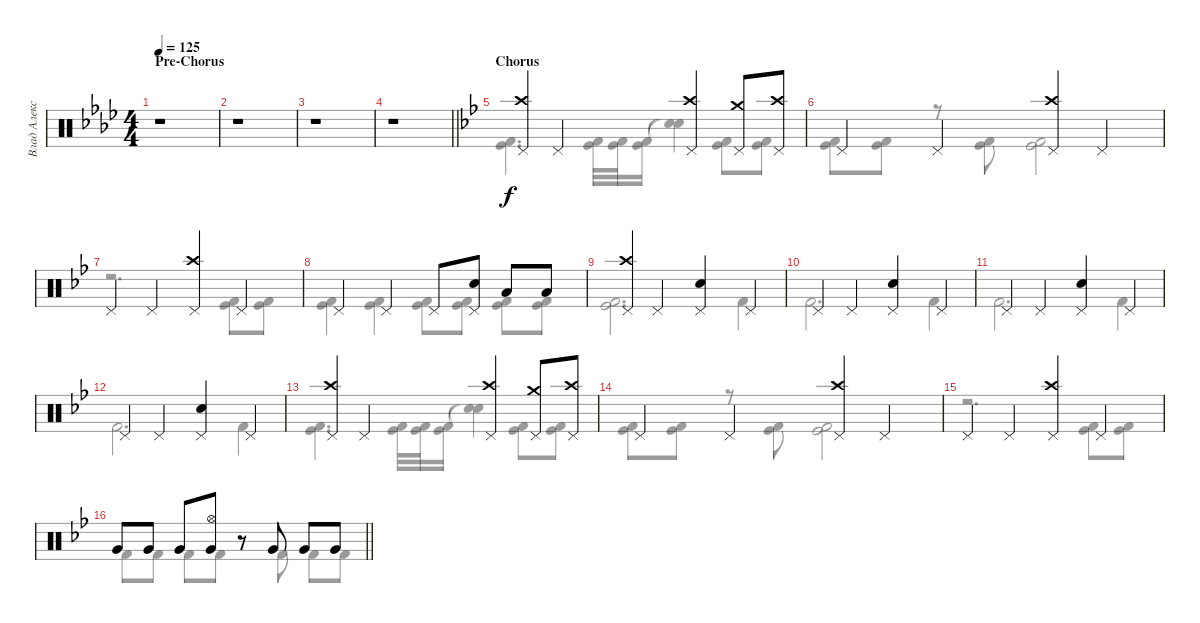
\track ("Влад Алексеенко" "Влад Алекс") {instrument percussion}
\staff {score}
\articulation defaults
\voice
\ts (4 4)
\section ("" "Pre-Chorus")
\tempo 125
\clef neutral
\ks ab
r.1{dy f} |
r.1 |
r.1 |
\barLineRight lightlight
r.1 |
\section ("" "Chorus")
\ks bb
("Pedal Hi-Hat (hit)" "Crash high (hit)").4 "Pedal Hi-Hat (hit)".4 ("Pedal Hi-Hat (hit)" "Crash high (hit)").4 ("Pedal Hi-Hat (hit)" "Crash medium (hit)").8 ("Pedal Hi-Hat (hit)" "Crash high (hit)").8 |
"Pedal Hi-Hat (hit)".4 "Pedal Hi-Hat (hit)".4 ("Pedal Hi-Hat (hit)" "Crash high (hit)").4 "Pedal Hi-Hat (hit)".4 |
"Pedal Hi-Hat (hit)".4 "Pedal Hi-Hat (hit)".4 ("Pedal Hi-Hat (hit)" "Crash high (hit)").4 "Pedal Hi-Hat (hit)".4 |
"Pedal Hi-Hat (hit)".4 "Pedal Hi-Hat (hit)".4 "Pedal Hi-Hat (hit)".8 ("Snare (hit) 2" "Pedal Hi-Hat (hit)").8 "Low Tom (hit)".8 "Low Tom (hit)".8 |
("Pedal Hi-Hat (hit)" "Crash high (hit)").4 "Pedal Hi-Hat (hit)".4 ("Snare (hit) 2" "Pedal Hi-Hat (hit)").4 "Pedal Hi-Hat (hit)".4 |
"Pedal Hi-Hat (hit)".4 "Pedal Hi-Hat (hit)".4 ("Snare (hit) 2" "Pedal Hi-Hat (hit)").4 "Pedal Hi-Hat (hit)".4 |
"Pedal Hi-Hat (hit)".4 "Pedal Hi-Hat (hit)".4 ("Snare (hit) 2" "Pedal Hi-Hat (hit)").4 "Pedal Hi-Hat (hit)".4 |
"Pedal Hi-Hat (hit)".4 "Pedal Hi-Hat (hit)".4 ("Snare (hit) 2" "Pedal Hi-Hat (hit)").4 "Pedal Hi-Hat (hit)".4 |
("Pedal Hi-Hat (hit)" "Crash high (hit)").4 "Pedal Hi-Hat (hit)".4 ("Pedal Hi-Hat (hit)" "Crash high (hit)").4 ("Pedal Hi-Hat (hit)" "Crash medium (hit)").8 ("Pedal Hi-Hat (hit)" "Crash high (hit)").8 |
"Pedal Hi-Hat (hit)".4 "Pedal Hi-Hat (hit)".4 ("Pedal Hi-Hat (hit)" "Crash high (hit)").4 "Pedal Hi-Hat (hit)".4 |
"Pedal Hi-Hat (hit)".4 "Pedal Hi-Hat (hit)".4 ("Pedal Hi-Hat (hit)" "Crash high (hit)").4 "Pedal Hi-Hat (hit)".4 |
\barLineRight lightlight "Very Low Tom (hit)".8 "Very Low Tom (hit)".8 "Very Low Tom (hit)".8
("Very Low Tom (hit)" "Hi-Hat (open)").8 r.8 "Very Low Tom (hit)".8 "Very Low Tom (hit)".8 "Very Low Tom (hit)".8
\voice
\clef neutral
\ottava regular
\simile none
\ks ab
|
|
|
\barLineRight lightlight
|
\ks bb
("Kick (hit)" "Kick (hit) 2").4{d} ("Kick (hit)" "Kick (hit) 2").32 ("Kick (hit)" "Kick (hit) 2").32 ("Kick (hit)" "Kick (hit) 2").16 ("Snare (hit)"{t} "Snare (hit)"{t}).4 ("Kick (hit)" "Kick (hit) 2").8 ("Kick (hit)" "Kick (hit) 2").8 |
("Kick (hit)" "Kick (hit) 2").8 ("Kick (hit)" "Kick (hit) 2").8 r.8 ("Kick (hit)" "Kick (hit) 2").8 ("Kick (hit)" "Kick (hit) 2").2 |
r.2{d} ("Kick (hit)" "Kick (hit) 2").8 ("Kick (hit)" "Kick (hit) 2").8 |
("Kick (hit)" "Kick (hit) 2").4 ("Kick (hit)" "Kick (hit) 2").4 ("Kick (hit)" "Kick (hit) 2").8 ("Kick (hit)" "Kick (hit) 2").8 ("Kick (hit)" "Kick (hit) 2").8 ("Kick (hit)" "Kick (hit) 2").8 |
("Kick (hit)" "Kick (hit) 2").2{d} "Kick (hit) 2".4 |
"Kick (hit) 2".2{d} "Kick (hit) 2".4 |
"Kick (hit) 2".2{d} "Kick (hit) 2".4 |
"Kick (hit) 2".2{d} "Kick (hit) 2".4 |
("Kick (hit)" "Kick (hit) 2").4{d} ("Kick (hit)" "Kick (hit) 2").32 ("Kick (hit)" "Kick (hit) 2").32 ("Kick (hit)" "Kick (hit) 2").16 ("Snare (hit)"{t} "Snare (hit)"{t}).4 ("Kick (hit)" "Kick (hit) 2").8 ("Kick (hit)" "Kick (hit) 2").8 |
("Kick (hit)" "Kick (hit) 2").8 ("Kick (hit)" "Kick (hit) 2").8 r.8 ("Kick (hit)" "Kick (hit) 2").8 ("Kick (hit)" "Kick (hit) 2").2 |
r.2{d} ("Kick (hit)" "Kick (hit) 2").8 ("Kick (hit)" "Kick (hit) 2").8 |
\barLineRight lightlight "Kick (hit) 2".8 "Kick (hit) 2".8 "Kick (hit) 2".8 "Kick (hit) 2".8
r.8 "Kick (hit) 2".8 "Kick (hit) 2".8 "Kick (hit) 2".8
